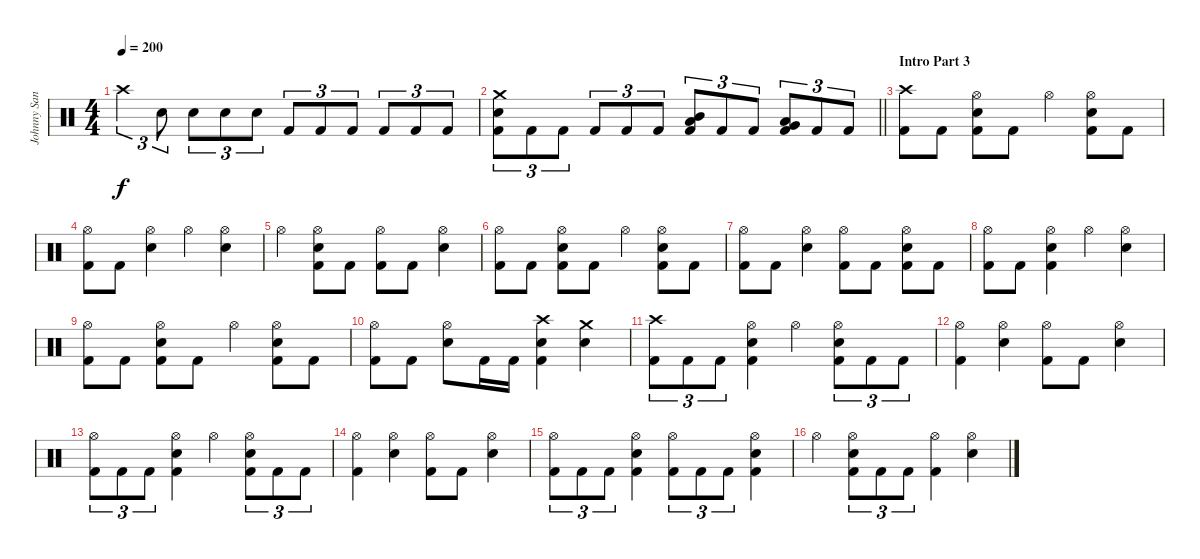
\track ("Johnny Sandin" "Johnny San") {instrument percussion}
\staff {score}
\articulation defaults
\ts (4 4)
\tempo 200
\clef neutral
\ks c "Crash high (hit)".4{tu (3 2) dy f} "Snare (hit) 2".8{tu (3 2)} "Snare (hit) 2".8{tu (3 2)} "Snare (hit) 2".8{tu (3 2)} "Snare (hit) 2".8{tu (3 2)} "Kick (hit) 2".8{tu (3 2)} "Kick (hit) 2".8{tu (3 2)} "Kick (hit) 2".8{tu (3 2)} "Kick (hit) 2".8{tu (3 2)} "Kick (hit) 2".8{tu (3 2)} "Kick (hit) 2".8{tu (3 2)}
|
\barLineRight lightlight
("Crash medium (hit)" "Snare (hit) 2" "Kick (hit) 2").8{tu (3 2)} "Kick (hit) 2".8{tu (3 2)} "Kick (hit) 2".8{tu (3 2)} "Kick (hit) 2".8{tu (3 2)} "Kick (hit) 2".8{tu (3 2)} "Kick (hit) 2".8{tu (3 2)} ("Mid Tom (hit)" "Low Tom (hit)" "Kick (hit) 2").8{tu (3 2)} "Kick (hit) 2".8{tu (3 2)} "Kick (hit) 2".8{tu (3 2)} ("Low Tom (hit)" "Very Low Tom (hit)" "Kick (hit) 2").8{tu (3 2)} "Kick (hit) 2".8{tu (3 2)} "Kick (hit) 2".8{tu (3 2)} |
\section ("" "Intro Part 3")
("Crash high (hit)" "Kick (hit) 2").8 "Kick (hit) 2".8 ("Hi-Hat (open)" "Snare (hit) 2" "Kick (hit) 2").8 "Kick (hit) 2".8 "Hi-Hat (open)".4 ("Hi-Hat (open)" "Snare (hit) 2" "Kick (hit) 2").8 "Kick (hit) 2".8 |
("Hi-Hat (open)" "Kick (hit) 2").8 "Kick (hit) 2".8 ("Hi-Hat (open)" "Snare (hit) 2").4 "Hi-Hat (open)".4 ("Hi-Hat (open)" "Snare (hit) 2").4 |
"Hi-Hat (open)".4 ("Hi-Hat (open)" "Snare (hit) 2" "Kick (hit) 2").8 "Kick (hit) 2".8 ("Hi-Hat (open)" "Kick (hit) 2").8 "Kick (hit) 2".8 ("Hi-Hat (open)" "Snare (hit) 2").4 |
("Hi-Hat (open)" "Kick (hit) 2").8 "Kick (hit) 2".8 ("Hi-Hat (open)" "Snare (hit) 2" "Kick (hit) 2").8 "Kick (hit) 2".8 "Hi-Hat (open)".4 ("Hi-Hat (open)" "Snare (hit) 2" "Kick (hit) 2").8 "Kick (hit) 2".8 |
("Hi-Hat (open)" "Kick (hit) 2").8 "Kick (hit) 2".8 ("Hi-Hat (open)" "Snare (hit) 2").4 ("Hi-Hat (open)" "Kick (hit) 2").8 "Kick (hit) 2".8 ("Hi-Hat (open)" "Snare (hit) 2" "Kick (hit) 2").8 "Kick (hit) 2".8 |
("Hi-Hat (open)" "Kick (hit) 2").8 "Kick (hit) 2".8 ("Hi-Hat (open)" "Snare (hit) 2" "Kick (hit) 2").4 "Hi-Hat (open)".4 ("Hi-Hat (open)" "Snare (hit) 2").4 |
("Hi-Hat (open)" "Kick (hit) 2").8 "Kick (hit) 2".8 ("Hi-Hat (open)" "Snare (hit) 2" "Kick (hit) 2").8 "Kick (hit) 2".8 "Hi-Hat (open)".4 ("Hi-Hat (open)" "Snare (hit) 2" "Kick (hit) 2").8 "Kick (hit) 2".8 |
("Hi-Hat (open)" "Kick (hit) 2").8 "Kick (hit) 2".8 ("Hi-Hat (open)" "Snare (hit) 2").8 "Kick (hit) 2".16 "Kick (hit) 2".16 ("Crash high (hit)" "Snare (hit) 2" "Kick (hit) 2").4 ("Crash medium (hit)" "Snare (hit) 2").4 |
("Crash high (hit)" "Kick (hit) 2").8{tu (3 2)} "Kick (hit) 2".8{tu (3 2)} "Kick (hit) 2".8{tu (3 2)} ("Hi-Hat (open)" "Snare (hit) 2" "Kick (hit) 2").4 "Hi-Hat (open)".4 ("Hi-Hat (open)" "Snare (hit) 2" "Kick (hit) 2").8{tu (3 2)} "Kick (hit) 2".8{tu (3 2)} "Kick (hit) 2".8{tu (3 2)} |
("Hi-Hat (open)" "Kick (hit) 2").4 ("Hi-Hat (open)" "Snare (hit) 2").4 ("Hi-Hat (open)" "Kick (hit) 2").8 "Kick (hit) 2".8 ("Hi-Hat (open)" "Snare (hit) 2").4 |
("Hi-Hat (open)" "Kick (hit) 2").8{tu (3 2)} "Kick (hit) 2".8{tu (3 2)} "Kick (hit) 2".8{tu (3 2)} ("Hi-Hat (open)" "Snare (hit) 2" "Kick (hit) 2").4 "Hi-Hat (open)".4 ("Hi-Hat (open)" "Snare (hit) 2" "Kick (hit) 2").8{tu (3 2)} "Kick (hit) 2".8{tu (3 2)} "Kick (hit) 2".8{tu (3 2)} |
("Hi-Hat (open)" "Kick (hit) 2").4 ("Hi-Hat (open)" "Snare (hit) 2").4 ("Hi-Hat (open)" "Kick (hit) 2").8 "Kick (hit) 2".8 ("Hi-Hat (open)" "Snare (hit) 2").4 |
("Hi-Hat (open)" "Kick (hit) 2").8{tu (3 2)} "Kick (hit) 2".8{tu (3 2)} "Kick (hit) 2".8{tu (3 2)} ("Hi-Hat (open)" "Snare (hit) 2" "Kick (hit) 2").4 ("Hi-Hat (open)" "Kick (hit) 2").8{tu (3 2)} "Kick (hit) 2".8{tu (3 2)} "Kick (hit) 2".8{tu (3 2)} ("Hi-Hat (open)" "Snare (hit) 2" "Kick (hit) 2").4 |
"Hi-Hat (open)".4 ("Hi-Hat (open)" "Snare (hit) 2" "Kick (hit) 2").8{tu (3 2)} "Kick (hit) 2".8{tu (3 2)} "Kick (hit) 2".8{tu (3 2)} ("Hi-Hat (open)" "Kick (hit) 2").4 ("Hi-Hat (open)" "Snare (hit) 2").4
